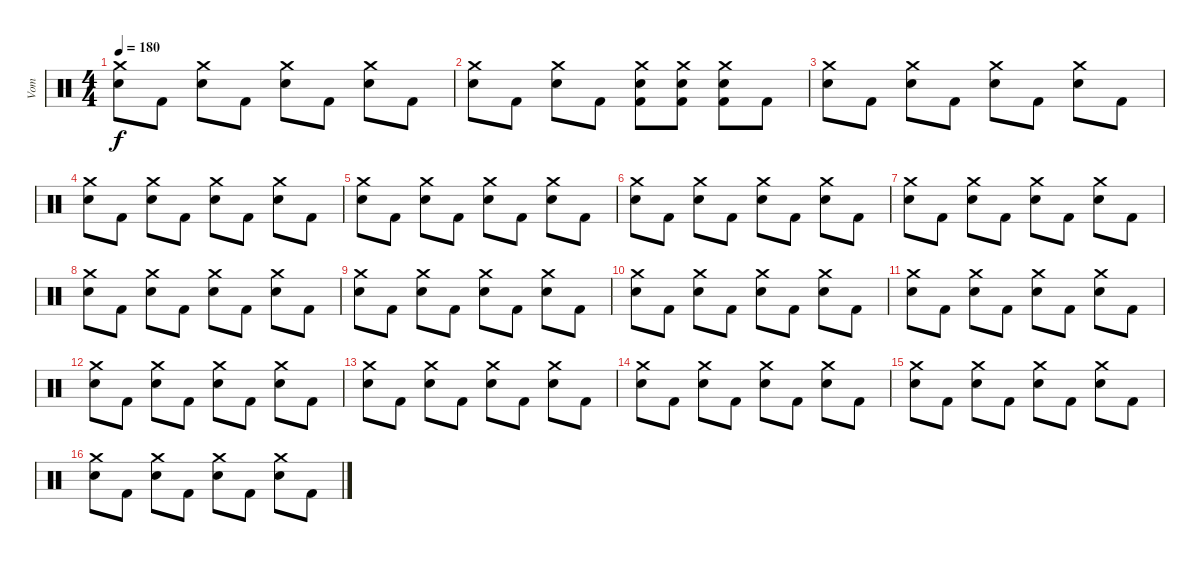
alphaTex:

\track ("Vom" "Vom") {instrument percussion}
\staff {score}
\articulation defaults
\ts (4 4)
\tempo 180
\clef neutral
\ks c
("Crash medium (hit)" "Snare (hit) 2").8{dy f} "Kick (hit) 2".8 ("Crash medium (hit)" "Snare (hit) 2").8 "Kick (hit) 2".8 ("Crash medium (hit)" "Snare (hit) 2").8 "Kick (hit) 2".8 ("Crash medium (hit)" "Snare (hit) 2").8 "Kick (hit) 2".8 |
("Crash medium (hit)" "Snare (hit) 2").8 "Kick (hit) 2".8 ("Crash medium (hit)" "Snare (hit) 2").8 "Kick (hit) 2".8 ("Crash medium (hit)" "Snare (hit) 2" "Kick (hit) 2").8 ("Crash medium (hit)" "Snare (hit) 2" "Kick (hit) 2").8 ("Crash medium (hit)" "Snare (hit) 2" "Kick (hit) 2").8 "Kick (hit) 2".8 |
("Crash medium (hit)" "Snare (hit) 2").8 "Kick (hit) 2".8 ("Crash medium (hit)" "Snare (hit) 2").8 "Kick (hit) 2".8 ("Crash medium (hit)" "Snare (hit) 2").8 "Kick (hit) 2".8 ("Crash medium (hit)" "Snare (hit) 2").8 "Kick (hit) 2".8 |
("Crash medium (hit)" "Snare (hit) 2").8 "Kick (hit) 2".8 ("Crash medium (hit)" "Snare (hit) 2").8 "Kick (hit) 2".8 ("Crash medium (hit)" "Snare (hit) 2").8 "Kick (hit) 2".8 ("Crash medium (hit)" "Snare (hit) 2").8 "Kick (hit) 2".8 |
("Crash medium (hit)" "Snare (hit) 2").8 "Kick (hit) 2".8 ("Crash medium (hit)" "Snare (hit) 2").8 "Kick (hit) 2".8 ("Crash medium (hit)" "Snare (hit) 2").8 "Kick (hit) 2".8 ("Crash medium (hit)" "Snare (hit) 2").8 "Kick (hit) 2".8 |
("Crash medium (hit)" "Snare (hit) 2").8 "Kick (hit) 2".8 ("Crash medium (hit)" "Snare (hit) 2").8 "Kick (hit) 2".8 ("Crash medium (hit)" "Snare (hit) 2").8 "Kick (hit) 2".8 ("Crash medium (hit)" "Snare (hit) 2").8 "Kick (hit) 2".8 |
("Crash medium (hit)" "Snare (hit) 2").8 "Kick (hit) 2".8 ("Crash medium (hit)" "Snare (hit) 2").8 "Kick (hit) 2".8 ("Crash medium (hit)" "Snare (hit) 2").8 "Kick (hit) 2".8 ("Crash medium (hit)" "Snare (hit) 2").8 "Kick (hit) 2".8 |
("Crash medium (hit)" "Snare (hit) 2").8 "Kick (hit) 2".8 ("Crash medium (hit)" "Snare (hit) 2").8 "Kick (hit) 2".8 ("Crash medium (hit)" "Snare (hit) 2").8 "Kick (hit) 2".8 ("Crash medium (hit)" "Snare (hit) 2").8 "Kick (hit) 2".8 |
("Crash medium (hit)" "Snare (hit) 2").8 "Kick (hit) 2".8 ("Crash medium (hit)" "Snare (hit) 2").8 "Kick (hit) 2".8 ("Crash medium (hit)" "Snare (hit) 2").8 "Kick (hit) 2".8 ("Crash medium (hit)" "Snare (hit) 2").8 "Kick (hit) 2".8 |
("Crash medium (hit)" "Snare (hit) 2").8 "Kick (hit) 2".8 ("Crash medium (hit)" "Snare (hit) 2").8 "Kick (hit) 2".8 ("Crash medium (hit)" "Snare (hit) 2").8 "Kick (hit) 2".8 ("Crash medium (hit)" "Snare (hit) 2").8 "Kick (hit) 2".8 |
("Crash medium (hit)" "Snare (hit) 2").8 "Kick (hit) 2".8 ("Crash medium (hit)" "Snare (hit) 2").8 "Kick (hit) 2".8 ("Crash medium (hit)" "Snare (hit) 2").8 "Kick (hit) 2".8 ("Crash medium (hit)" "Snare (hit) 2").8 "Kick (hit) 2".8 |
("Crash medium (hit)" "Snare (hit) 2").8 "Kick (hit) 2".8 ("Crash medium (hit)" "Snare (hit) 2").8 "Kick (hit) 2".8 ("Crash medium (hit)" "Snare (hit) 2").8 "Kick (hit) 2".8 ("Crash medium (hit)" "Snare (hit) 2").8 "Kick (hit) 2".8 |
("Crash medium (hit)" "Snare (hit) 2").8 "Kick (hit) 2".8 ("Crash medium (hit)" "Snare (hit) 2").8 "Kick (hit) 2".8 ("Crash medium (hit)" "Snare (hit) 2").8 "Kick (hit) 2".8 ("Crash medium (hit)" "Snare (hit) 2").8 "Kick (hit) 2".8 |
("Crash medium (hit)" "Snare (hit) 2").8 "Kick (hit) 2".8 ("Crash medium (hit)" "Snare (hit) 2").8 "Kick (hit) 2".8 ("Crash medium (hit)" "Snare (hit) 2").8 "Kick (hit) 2".8 ("Crash medium (hit)" "Snare (hit) 2").8 "Kick (hit) 2".8 |
("Crash medium (hit)" "Snare (hit) 2").8 "Kick (hit) 2".8 ("Crash medium (hit)" "Snare (hit) 2").8 "Kick (hit) 2".8 ("Crash medium (hit)" "Snare (hit) 2").8 "Kick (hit) 2".8 ("Crash medium (hit)" "Snare (hit) 2").8 "Kick (hit) 2".8 |
("Crash medium (hit)" "Snare (hit) 2").8 "Kick (hit) 2".8 ("Crash medium (hit)" "Snare (hit) 2").8 "Kick (hit) 2".8 ("Crash medium (hit)" "Snare (hit) 2").8 "Kick (hit) 2".8 ("Crash medium (hit)" "Snare (hit) 2").8 "Kick (hit) 2".8
